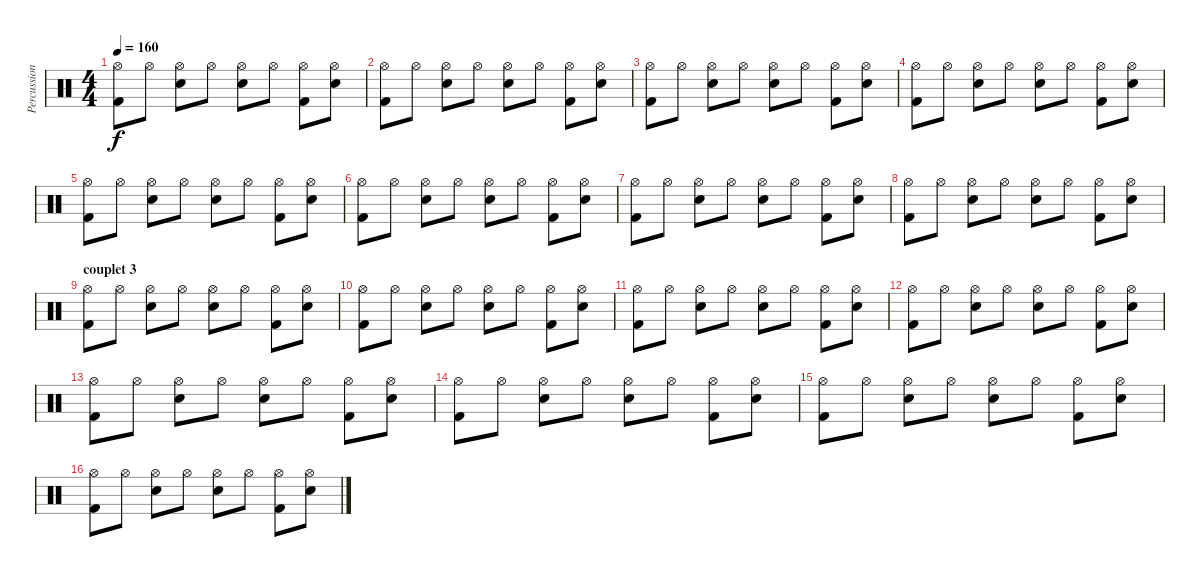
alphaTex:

\track ("Percussions" "Percussion") {instrument percussion}
\staff {score}
\articulation defaults
\ts (4 4)
\tempo 160
\clef neutral
\ks c
("Hi-Hat (open)" "Kick (hit) 2").8{dy f} "Hi-Hat (open)".8 ("Hi-Hat (open)" "Electric Snare (hit)").8 "Hi-Hat (open)".8 ("Hi-Hat (open)" "Electric Snare (hit)").8 "Hi-Hat (open)".8 ("Hi-Hat (open)" "Kick (hit) 2").8 ("Hi-Hat (open)" "Electric Snare (hit)").8 |
("Hi-Hat (open)" "Kick (hit) 2").8 "Hi-Hat (open)".8 ("Hi-Hat (open)" "Electric Snare (hit)").8 "Hi-Hat (open)".8 ("Hi-Hat (open)" "Electric Snare (hit)").8 "Hi-Hat (open)".8 ("Hi-Hat (open)" "Kick (hit) 2").8 ("Hi-Hat (open)" "Electric Snare (hit)").8 |
("Hi-Hat (open)" "Kick (hit) 2").8 "Hi-Hat (open)".8 ("Hi-Hat (open)" "Electric Snare (hit)").8 "Hi-Hat (open)".8 ("Hi-Hat (open)" "Electric Snare (hit)").8 "Hi-Hat (open)".8 ("Hi-Hat (open)" "Kick (hit) 2").8 ("Hi-Hat (open)" "Electric Snare (hit)").8 |
("Hi-Hat (open)" "Kick (hit) 2").8 "Hi-Hat (open)".8 ("Hi-Hat (open)" "Electric Snare (hit)").8 "Hi-Hat (open)".8 ("Hi-Hat (open)" "Electric Snare (hit)").8 "Hi-Hat (open)".8 ("Hi-Hat (open)" "Kick (hit) 2").8 ("Hi-Hat (open)" "Electric Snare (hit)").8 |
("Hi-Hat (open)" "Kick (hit) 2").8 "Hi-Hat (open)".8 ("Hi-Hat (open)" "Electric Snare (hit)").8 "Hi-Hat (open)".8 ("Hi-Hat (open)" "Electric Snare (hit)").8 "Hi-Hat (open)".8 ("Hi-Hat (open)" "Kick (hit) 2").8 ("Hi-Hat (open)" "Electric Snare (hit)").8 |
("Hi-Hat (open)" "Kick (hit) 2").8 "Hi-Hat (open)".8 ("Hi-Hat (open)" "Electric Snare (hit)").8 "Hi-Hat (open)".8 ("Hi-Hat (open)" "Electric Snare (hit)").8 "Hi-Hat (open)".8 ("Hi-Hat (open)" "Kick (hit) 2").8 ("Hi-Hat (open)" "Electric Snare (hit)").8 |
("Hi-Hat (open)" "Kick (hit) 2").8 "Hi-Hat (open)".8 ("Hi-Hat (open)" "Electric Snare (hit)").8 "Hi-Hat (open)".8 ("Hi-Hat (open)" "Electric Snare (hit)").8 "Hi-Hat (open)".8 ("Hi-Hat (open)" "Kick (hit) 2").8 ("Hi-Hat (open)" "Electric Snare (hit)").8 |
("Hi-Hat (open)" "Kick (hit) 2").8 "Hi-Hat (open)".8 ("Hi-Hat (open)" "Electric Snare (hit)").8 "Hi-Hat (open)".8 ("Hi-Hat (open)" "Electric Snare (hit)").8 "Hi-Hat (open)".8 ("Hi-Hat (open)" "Kick (hit) 2").8 ("Hi-Hat (open)" "Electric Snare (hit)").8 |
\section ("" "couplet 3 ")
("Hi-Hat (open)" "Kick (hit) 2").8 "Hi-Hat (open)".8 ("Hi-Hat (open)" "Electric Snare (hit)").8 "Hi-Hat (open)".8 ("Hi-Hat (open)" "Electric Snare (hit)").8 "Hi-Hat (open)".8 ("Hi-Hat (open)" "Kick (hit) 2").8 ("Hi-Hat (open)" "Electric Snare (hit)").8 |
("Hi-Hat (open)" "Kick (hit) 2").8 "Hi-Hat (open)".8 ("Hi-Hat (open)" "Electric Snare (hit)").8 "Hi-Hat (open)".8 ("Hi-Hat (open)" "Electric Snare (hit)").8 "Hi-Hat (open)".8 ("Hi-Hat (open)" "Kick (hit) 2").8 ("Hi-Hat (open)" "Electric Snare (hit)").8 |
("Hi-Hat (open)" "Kick (hit) 2").8 "Hi-Hat (open)".8 ("Hi-Hat (open)" "Electric Snare (hit)").8 "Hi-Hat (open)".8 ("Hi-Hat (open)" "Electric Snare (hit)").8 "Hi-Hat (open)".8 ("Hi-Hat (open)" "Kick (hit) 2").8 ("Hi-Hat (open)" "Electric Snare (hit)").8 |
("Hi-Hat (open)" "Kick (hit) 2").8 "Hi-Hat (open)".8 ("Hi-Hat (open)" "Electric Snare (hit)").8 "Hi-Hat (open)".8 ("Hi-Hat (open)" "Electric Snare (hit)").8 "Hi-Hat (open)".8 ("Hi-Hat (open)" "Kick (hit) 2").8 ("Hi-Hat (open)" "Electric Snare (hit)").8 |
("Hi-Hat (open)" "Kick (hit) 2").8 "Hi-Hat (open)".8 ("Hi-Hat (open)" "Electric Snare (hit)").8 "Hi-Hat (open)".8 ("Hi-Hat (open)" "Electric Snare (hit)").8 "Hi-Hat (open)".8 ("Hi-Hat (open)" "Kick (hit) 2").8 ("Hi-Hat (open)" "Electric Snare (hit)").8 |
("Hi-Hat (open)" "Kick (hit) 2").8 "Hi-Hat (open)".8 ("Hi-Hat (open)" "Electric Snare (hit)").8 "Hi-Hat (open)".8 ("Hi-Hat (open)" "Electric Snare (hit)").8 "Hi-Hat (open)".8 ("Hi-Hat (open)" "Kick (hit) 2").8 ("Hi-Hat (open)" "Electric Snare (hit)").8 |
("Hi-Hat (open)" "Kick (hit) 2").8 "Hi-Hat (open)".8 ("Hi-Hat (open)" "Electric Snare (hit)").8 "Hi-Hat (open)".8 ("Hi-Hat (open)" "Electric Snare (hit)").8 "Hi-Hat (open)".8 ("Hi-Hat (open)" "Kick (hit) 2").8 ("Hi-Hat (open)" "Electric Snare (hit)").8 |
("Hi-Hat (open)" "Kick (hit) 2").8 "Hi-Hat (open)".8 ("Hi-Hat (open)" "Electric Snare (hit)").8 "Hi-Hat (open)".8 ("Hi-Hat (open)" "Electric Snare (hit)").8 "Hi-Hat (open)".8 ("Hi-Hat (open)" "Kick (hit) 2").8 ("Hi-Hat (open)" "Electric Snare (hit)").8
